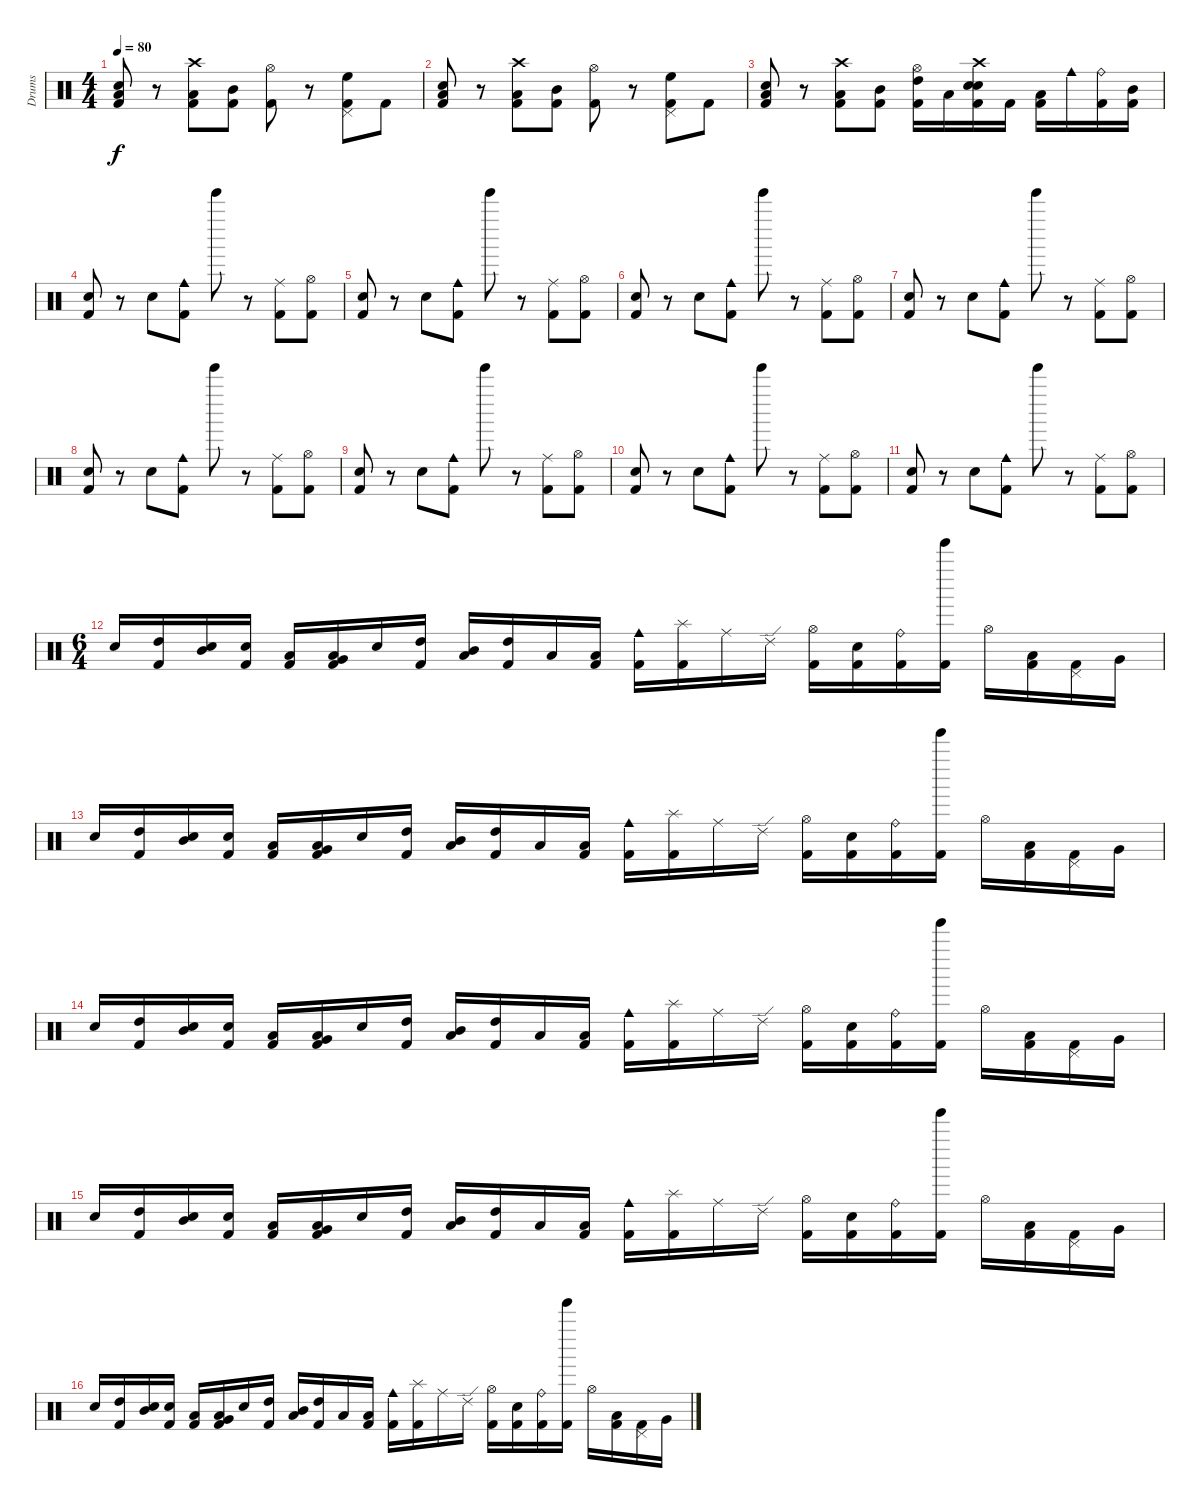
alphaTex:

\track ("Drums" "Drums") {instrument percussion}
\staff {score}
\articulation defaults
\ts (4 4)
\tempo 80
\clef neutral
\ks c
("Kick (hit) 2" "Electric Snare (hit)" "Low Floor Tom (hit)").8{dy f} r.8 ("Kick (hit) 2" "Low Floor Tom (hit)" "Crash high (hit)").8 ("Kick (hit) 2" "Mid Tom (hit)").8 ("Kick (hit) 2" "Hi-Hat (open)").8 r.8 ("Kick (hit) 2" "Pedal Hi-Hat (hit)" "High Floor Tom (hit)").8 "Kick (hit) 2".8 |
("Kick (hit) 2" "Electric Snare (hit)" "Low Floor Tom (hit)").8 r.8 ("Kick (hit) 2" "Low Floor Tom (hit)" "Crash high (hit)").8 ("Kick (hit) 2" "Mid Tom (hit)").8 ("Kick (hit) 2" "Hi-Hat (open)").8 r.8 ("Kick (hit) 2" "Pedal Hi-Hat (hit)" "High Floor Tom (hit)").8 "Kick (hit) 2".8 |
("Kick (hit) 2" "Electric Snare (hit)" "Low Floor Tom (hit)").8 r.8 ("Kick (hit) 2" "Low Floor Tom (hit)" "Crash high (hit)").8 ("Kick (hit) 2" "Mid Tom (hit)").8 ("Kick (hit) 2" "Hi-Hat (open)" "High Tom (hit)").16 "Low Tom (hit)".16 ("Kick (hit) 2" "Electric Snare (hit)" "Crash high (hit)" "Electric Snare (hit)").16 "Kick (hit) 2".16 ("Kick (hit) 2" "Low Floor Tom (hit)").16 "Cowbell medium (hit)".16 ("Kick (hit) 2" "Ride (bell)").16 ("Kick (hit) 2" "Mid Tom (hit)").16 |
("Kick (hit) 2" "Electric Snare (hit)").8 r.8 "Electric Snare (hit)".8 ("Kick (hit) 2" "Cowbell medium (hit)").8 "Tinkle Bell (hit)".8 r.8 ("Kick (hit) 2" "Ride (middle)").8 ("Kick (hit) 2" "Hi-Hat (open)").8 |
("Kick (hit) 2" "Electric Snare (hit)").8 r.8 "Electric Snare (hit)".8 ("Kick (hit) 2" "Cowbell medium (hit)").8 "Tinkle Bell (hit)".8 r.8 ("Kick (hit) 2" "Ride (middle)").8 ("Kick (hit) 2" "Hi-Hat (open)").8 |
("Kick (hit) 2" "Electric Snare (hit)").8 r.8 "Electric Snare (hit)".8 ("Kick (hit) 2" "Cowbell medium (hit)").8 "Tinkle Bell (hit)".8 r.8 ("Kick (hit) 2" "Ride (middle)").8 ("Kick (hit) 2" "Hi-Hat (open)").8 |
("Kick (hit) 2" "Electric Snare (hit)").8 r.8 "Electric Snare (hit)".8 ("Kick (hit) 2" "Cowbell medium (hit)").8 "Tinkle Bell (hit)".8 r.8 ("Kick (hit) 2" "Ride (middle)").8 ("Kick (hit) 2" "Hi-Hat (open)").8 |
("Kick (hit) 2" "Electric Snare (hit)").8 r.8 "Electric Snare (hit)".8 ("Kick (hit) 2" "Cowbell medium (hit)").8 "Tinkle Bell (hit)".8 r.8 ("Kick (hit) 2" "Ride (middle)").8 ("Kick (hit) 2" "Hi-Hat (open)").8 |
("Kick (hit) 2" "Electric Snare (hit)").8 r.8 "Electric Snare (hit)".8 ("Kick (hit) 2" "Cowbell medium (hit)").8 "Tinkle Bell (hit)".8 r.8 ("Kick (hit) 2" "Ride (middle)").8 ("Kick (hit) 2" "Hi-Hat (open)").8 |
("Kick (hit) 2" "Electric Snare (hit)").8 r.8 "Electric Snare (hit)".8 ("Kick (hit) 2" "Cowbell medium (hit)").8 "Tinkle Bell (hit)".8 r.8 ("Kick (hit) 2" "Ride (middle)").8 ("Kick (hit) 2" "Hi-Hat (open)").8 |
("Kick (hit) 2" "Electric Snare (hit)").8 r.8 "Electric Snare (hit)".8 ("Kick (hit) 2" "Cowbell medium (hit)").8 "Tinkle Bell (hit)".8 r.8 ("Kick (hit) 2" "Ride (middle)").8 ("Kick (hit) 2" "Hi-Hat (open)").8 |
\ts (6 4)
"Electric Snare (hit)".16 ("Kick (hit) 2" "High Tom (hit)").16 ("Mid Tom (hit)" "Electric Snare (hit)").16 ("Kick (hit) 2" "Electric Snare (hit)").16 ("Kick (hit) 2" "Low Floor Tom (hit)").16 ("Kick (hit) 2" "Very Low Tom (hit)" "Low Floor Tom (hit)").16 "Electric Snare (hit)".16 ("Kick (hit) 2" "High Tom (hit)").16 ("Mid Tom (hit)" "Low Tom (hit)").16 ("Kick (hit) 2" "High Tom (hit)").16 "Low Tom (hit)".16 ("Kick (hit) 2" "Low Tom (hit)").16 ("Kick (hit) 2" "Cowbell medium (hit)").16 ("Kick (hit) 2" "Splash (hit)").16 "Ride (middle)".16 "Ride (edge) 2".16 ("Kick (hit) 2" "Hi-Hat (open)").16 ("Kick (hit) 2" "Electric Snare (hit)").16 ("Kick (hit) 2" "Ride (bell)").16 ("Kick (hit) 2" "Tinkle Bell (hit)").16 "Hi-Hat (open)".16 ("Kick (hit) 2" "Low Tom (hit)").16 ("Kick (hit) 2" "Pedal Hi-Hat (hit)").16 "Very Low Tom (hit)".16 |
"Electric Snare (hit)".16 ("Kick (hit) 2" "High Tom (hit)").16 ("Mid Tom (hit)" "Electric Snare (hit)").16 ("Kick (hit) 2" "Electric Snare (hit)").16 ("Kick (hit) 2" "Low Floor Tom (hit)").16 ("Kick (hit) 2" "Very Low Tom (hit)" "Low Floor Tom (hit)").16 "Electric Snare (hit)".16 ("Kick (hit) 2" "High Tom (hit)").16 ("Mid Tom (hit)" "Low Tom (hit)").16 ("Kick (hit) 2" "High Tom (hit)").16 "Low Tom (hit)".16 ("Kick (hit) 2" "Low Tom (hit)").16 ("Kick (hit) 2" "Cowbell medium (hit)").16 ("Kick (hit) 2" "Splash (hit)").16 "Ride (middle)".16 "Ride (edge) 2".16 ("Kick (hit) 2" "Hi-Hat (open)").16 ("Kick (hit) 2" "Electric Snare (hit)").16 ("Kick (hit) 2" "Ride (bell)").16 ("Kick (hit) 2" "Tinkle Bell (hit)").16 "Hi-Hat (open)".16 ("Kick (hit) 2" "Low Tom (hit)").16 ("Kick (hit) 2" "Pedal Hi-Hat (hit)").16 "Very Low Tom (hit)".16 |
"Electric Snare (hit)".16 ("Kick (hit) 2" "High Tom (hit)").16 ("Mid Tom (hit)" "Electric Snare (hit)").16 ("Kick (hit) 2" "Electric Snare (hit)").16 ("Kick (hit) 2" "Low Floor Tom (hit)").16 ("Kick (hit) 2" "Very Low Tom (hit)" "Low Floor Tom (hit)").16 "Electric Snare (hit)".16 ("Kick (hit) 2" "High Tom (hit)").16 ("Mid Tom (hit)" "Low Tom (hit)").16 ("Kick (hit) 2" "High Tom (hit)").16 "Low Tom (hit)".16 ("Kick (hit) 2" "Low Tom (hit)").16 ("Kick (hit) 2" "Cowbell medium (hit)").16 ("Kick (hit) 2" "Splash (hit)").16 "Ride (middle)".16 "Ride (edge) 2".16 ("Kick (hit) 2" "Hi-Hat (open)").16 ("Kick (hit) 2" "Electric Snare (hit)").16 ("Kick (hit) 2" "Ride (bell)").16 ("Kick (hit) 2" "Tinkle Bell (hit)").16 "Hi-Hat (open)".16 ("Kick (hit) 2" "Low Tom (hit)").16 ("Kick (hit) 2" "Pedal Hi-Hat (hit)").16 "Very Low Tom (hit)".16 |
"Electric Snare (hit)".16 ("Kick (hit) 2" "High Tom (hit)").16 ("Mid Tom (hit)" "Electric Snare (hit)").16 ("Kick (hit) 2" "Electric Snare (hit)").16 ("Kick (hit) 2" "Low Floor Tom (hit)").16 ("Kick (hit) 2" "Very Low Tom (hit)" "Low Floor Tom (hit)").16 "Electric Snare (hit)".16 ("Kick (hit) 2" "High Tom (hit)").16 ("Mid Tom (hit)" "Low Tom (hit)").16 ("Kick (hit) 2" "High Tom (hit)").16 "Low Tom (hit)".16 ("Kick (hit) 2" "Low Tom (hit)").16 ("Kick (hit) 2" "Cowbell medium (hit)").16 ("Kick (hit) 2" "Splash (hit)").16 "Ride (middle)".16 "Ride (edge) 2".16 ("Kick (hit) 2" "Hi-Hat (open)").16 ("Kick (hit) 2" "Electric Snare (hit)").16 ("Kick (hit) 2" "Ride (bell)").16 ("Kick (hit) 2" "Tinkle Bell (hit)").16 "Hi-Hat (open)".16 ("Kick (hit) 2" "Low Tom (hit)").16 ("Kick (hit) 2" "Pedal Hi-Hat (hit)").16 "Very Low Tom (hit)".16 |
"Electric Snare (hit)".16 ("Kick (hit) 2" "High Tom (hit)").16 ("Mid Tom (hit)" "Electric Snare (hit)").16 ("Kick (hit) 2" "Electric Snare (hit)").16 ("Kick (hit) 2" "Low Floor Tom (hit)").16 ("Kick (hit) 2" "Very Low Tom (hit)" "Low Floor Tom (hit)").16 "Electric Snare (hit)".16 ("Kick (hit) 2" "High Tom (hit)").16 ("Mid Tom (hit)" "Low Tom (hit)").16 ("Kick (hit) 2" "High Tom (hit)").16 "Low Tom (hit)".16 ("Kick (hit) 2" "Low Tom (hit)").16 ("Kick (hit) 2" "Cowbell medium (hit)").16 ("Kick (hit) 2" "Splash (hit)").16 "Ride (middle)".16 "Ride (edge) 2".16 ("Kick (hit) 2" "Hi-Hat (open)").16 ("Kick (hit) 2" "Electric Snare (hit)").16 ("Kick (hit) 2" "Ride (bell)").16 ("Kick (hit) 2" "Tinkle Bell (hit)").16 "Hi-Hat (open)".16 ("Kick (hit) 2" "Low Tom (hit)").16 ("Kick (hit) 2" "Pedal Hi-Hat (hit)").16 "Very Low Tom (hit)".16
